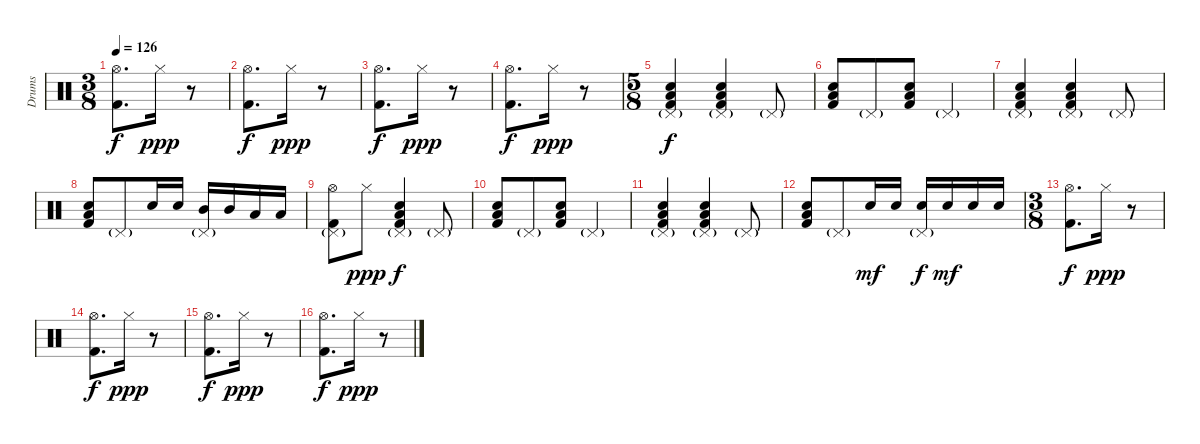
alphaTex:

\track ("Drums" "Drums") {instrument percussion}
\staff {score}
\articulation defaults
\ts (3 8)
\tempo 126
\clef neutral
\ks c
("Hi-Hat (open)" "Kick (hit) 2").8{d dy f} "Hi-Hat (closed)".16{dy ppp} r.8 |
("Hi-Hat (open)" "Kick (hit) 2").8{d dy f} "Hi-Hat (closed)".16{dy ppp} r.8 |
("Hi-Hat (open)" "Kick (hit) 2").8{d dy f} "Hi-Hat (closed)".16{dy ppp} r.8 |
("Hi-Hat (open)" "Kick (hit) 2").8{d dy f} "Hi-Hat (closed)".16{dy ppp} r.8 |
\ts (5 8)
("Pedal Hi-Hat (hit)"{g} "Low Tom (hit)" "Snare (hit) 2" "Kick (hit) 2").4{dy f} ("Pedal Hi-Hat (hit)"{g} "Low Tom (hit)" "Snare (hit) 2" "Kick (hit) 2").4 "Pedal Hi-Hat (hit)"{g}.8 |
("Low Tom (hit)" "Snare (hit) 2" "Kick (hit) 2").8 "Pedal Hi-Hat (hit)"{g}.8 ("Low Tom (hit)" "Snare (hit) 2" "Kick (hit) 2").8 "Pedal Hi-Hat (hit)"{g}.4 |
("Pedal Hi-Hat (hit)"{g} "Low Tom (hit)" "Snare (hit) 2" "Kick (hit) 2").4 ("Pedal Hi-Hat (hit)"{g} "Low Tom (hit)" "Snare (hit) 2" "Kick (hit) 2").4 "Pedal Hi-Hat (hit)"{g}.8 |
("Low Tom (hit)" "Snare (hit) 2" "Kick (hit) 2").8 "Pedal Hi-Hat (hit)"{g}.8 "Snare (hit) 2".16 "Snare (hit) 2".16 ("Pedal Hi-Hat (hit)"{g} "Mid Tom (hit)").16 "Mid Tom (hit)".16 "Low Tom (hit)".16 "Low Tom (hit)".16 |
("Pedal Hi-Hat (hit)"{g} "Hi-Hat (open)" "Kick (hit) 2").8 "Hi-Hat (closed)".8{dy ppp} ("Pedal Hi-Hat (hit)"{g} "Low Tom (hit)" "Snare (hit) 2" "Kick (hit) 2").4{dy f} "Pedal Hi-Hat (hit)"{g}.8 |
("Low Tom (hit)" "Snare (hit) 2" "Kick (hit) 2").8 "Pedal Hi-Hat (hit)"{g}.8 ("Low Tom (hit)" "Snare (hit) 2" "Kick (hit) 2").8 "Pedal Hi-Hat (hit)"{g}.4 |
("Pedal Hi-Hat (hit)"{g} "Low Tom (hit)" "Snare (hit) 2" "Kick (hit) 2").4 ("Pedal Hi-Hat (hit)"{g} "Low Tom (hit)" "Snare (hit) 2" "Kick (hit) 2").4 "Pedal Hi-Hat (hit)"{g}.8 |
("Low Tom (hit)" "Snare (hit) 2" "Kick (hit) 2").8 "Pedal Hi-Hat (hit)"{g}.8 "Snare (hit) 2".16{dy mf} "Snare (hit) 2".16 ("Pedal Hi-Hat (hit)"{g} "Snare (hit) 2").16{dy f} "Snare (hit) 2".16{dy mf} "Snare (hit) 2".16 "Snare (hit) 2".16 |
\ts (3 8)
("Hi-Hat (open)" "Kick (hit) 2").8{d dy f} "Hi-Hat (closed)".16{dy ppp} r.8 |
("Hi-Hat (open)" "Kick (hit) 2").8{d dy f} "Hi-Hat (closed)".16{dy ppp} r.8 |
("Hi-Hat (open)" "Kick (hit) 2").8{d dy f} "Hi-Hat (closed)".16{dy ppp} r.8 |
("Hi-Hat (open)" "Kick (hit) 2").8{d dy f} "Hi-Hat (closed)".16{dy ppp} r.8
